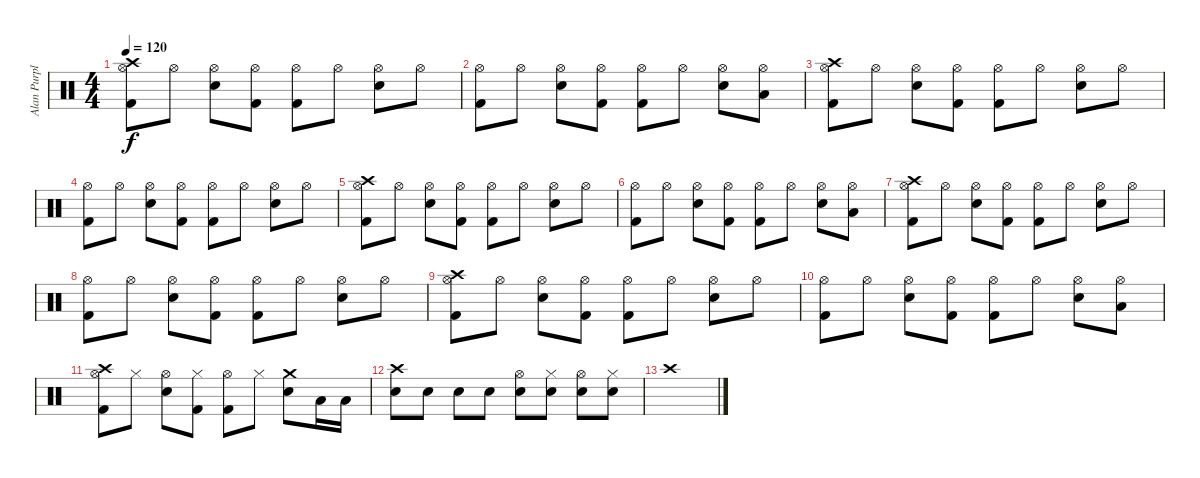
\track ("Alan Purple" "Alan Purpl") {instrument percussion}
\staff {score}
\articulation defaults
\ts (4 4)
\tempo 120
\clef neutral
\ks c
("Crash high (hit)" "Hi-Hat (open)" "Kick (hit) 2").8{dy f} "Hi-Hat (open)".8 ("Hi-Hat (open)" "Snare (hit) 2").8 ("Hi-Hat (open)" "Kick (hit) 2").8 ("Hi-Hat (open)" "Kick (hit) 2").8 "Hi-Hat (open)".8 ("Hi-Hat (open)" "Snare (hit) 2").8 "Hi-Hat (open)".8 |
("Hi-Hat (open)" "Kick (hit) 2").8 "Hi-Hat (open)".8 ("Hi-Hat (open)" "Snare (hit) 2").8 ("Hi-Hat (open)" "Kick (hit) 2").8 ("Hi-Hat (open)" "Kick (hit) 2").8 "Hi-Hat (open)".8 ("Hi-Hat (open)" "Snare (hit) 2").8 ("Hi-Hat (open)" "Low Tom (hit)").8 |
("Crash high (hit)" "Hi-Hat (open)" "Kick (hit) 2").8 "Hi-Hat (open)".8 ("Hi-Hat (open)" "Snare (hit) 2").8 ("Hi-Hat (open)" "Kick (hit) 2").8 ("Hi-Hat (open)" "Kick (hit) 2").8 "Hi-Hat (open)".8 ("Hi-Hat (open)" "Snare (hit) 2").8 "Hi-Hat (open)".8 |
("Hi-Hat (open)" "Kick (hit) 2").8 "Hi-Hat (open)".8 ("Hi-Hat (open)" "Snare (hit) 2").8 ("Hi-Hat (open)" "Kick (hit) 2").8 ("Hi-Hat (open)" "Kick (hit) 2").8 "Hi-Hat (open)".8 ("Hi-Hat (open)" "Snare (hit) 2").8 "Hi-Hat (open)".8 |
("Crash high (hit)" "Hi-Hat (open)" "Kick (hit) 2").8 "Hi-Hat (open)".8 ("Hi-Hat (open)" "Snare (hit) 2").8 ("Hi-Hat (open)" "Kick (hit) 2").8 ("Hi-Hat (open)" "Kick (hit) 2").8 "Hi-Hat (open)".8 ("Hi-Hat (open)" "Snare (hit) 2").8 "Hi-Hat (open)".8 |
("Hi-Hat (open)" "Kick (hit) 2").8 "Hi-Hat (open)".8 ("Hi-Hat (open)" "Snare (hit) 2").8 ("Hi-Hat (open)" "Kick (hit) 2").8 ("Hi-Hat (open)" "Kick (hit) 2").8 "Hi-Hat (open)".8 ("Hi-Hat (open)" "Snare (hit) 2").8 ("Hi-Hat (open)" "Low Tom (hit)").8 |
("Crash high (hit)" "Hi-Hat (open)" "Kick (hit) 2").8 "Hi-Hat (open)".8 ("Hi-Hat (open)" "Snare (hit) 2").8 ("Hi-Hat (open)" "Kick (hit) 2").8 ("Hi-Hat (open)" "Kick (hit) 2").8 "Hi-Hat (open)".8 ("Hi-Hat (open)" "Snare (hit) 2").8 "Hi-Hat (open)".8 |
("Hi-Hat (open)" "Kick (hit) 2").8 "Hi-Hat (open)".8 ("Hi-Hat (open)" "Snare (hit) 2").8 ("Hi-Hat (open)" "Kick (hit) 2").8 ("Hi-Hat (open)" "Kick (hit) 2").8 "Hi-Hat (open)".8 ("Hi-Hat (open)" "Snare (hit) 2").8 "Hi-Hat (open)".8 |
("Crash high (hit)" "Hi-Hat (open)" "Kick (hit) 2").8 "Hi-Hat (open)".8 ("Hi-Hat (open)" "Snare (hit) 2").8 ("Hi-Hat (open)" "Kick (hit) 2").8 ("Hi-Hat (open)" "Kick (hit) 2").8 "Hi-Hat (open)".8 ("Hi-Hat (open)" "Snare (hit) 2").8 "Hi-Hat (open)".8 |
("Hi-Hat (open)" "Kick (hit) 2").8 "Hi-Hat (open)".8 ("Hi-Hat (open)" "Snare (hit) 2").8 ("Hi-Hat (open)" "Kick (hit) 2").8 ("Hi-Hat (open)" "Kick (hit) 2").8 "Hi-Hat (open)".8 ("Hi-Hat (open)" "Snare (hit) 2").8 ("Hi-Hat (open)" "Low Tom (hit)").8 |
("Crash high (hit)" "Hi-Hat (open)" "Kick (hit) 2").8 "Hi-Hat (closed)".8 ("Hi-Hat (open)" "Snare (hit) 2").8 ("Hi-Hat (closed)" "Kick (hit) 2").8 ("Hi-Hat (open)" "Kick (hit) 2").8 "Hi-Hat (closed)".8 ("Crash medium (hit)" "Snare (hit) 2").8 "Low Tom (hit)".16 "Low Tom (hit)".16 |
("Crash high (hit)" "Snare (hit) 2").8 "Snare (hit) 2".8 "Snare (hit) 2".8 "Snare (hit) 2".8 ("Hi-Hat (open)" "Snare (hit) 2").8 ("Hi-Hat (closed)" "Snare (hit) 2").8 ("Hi-Hat (open)" "Snare (hit) 2").8 ("Hi-Hat (closed)" "Snare (hit) 2").8 |
"Crash high (hit)".1
